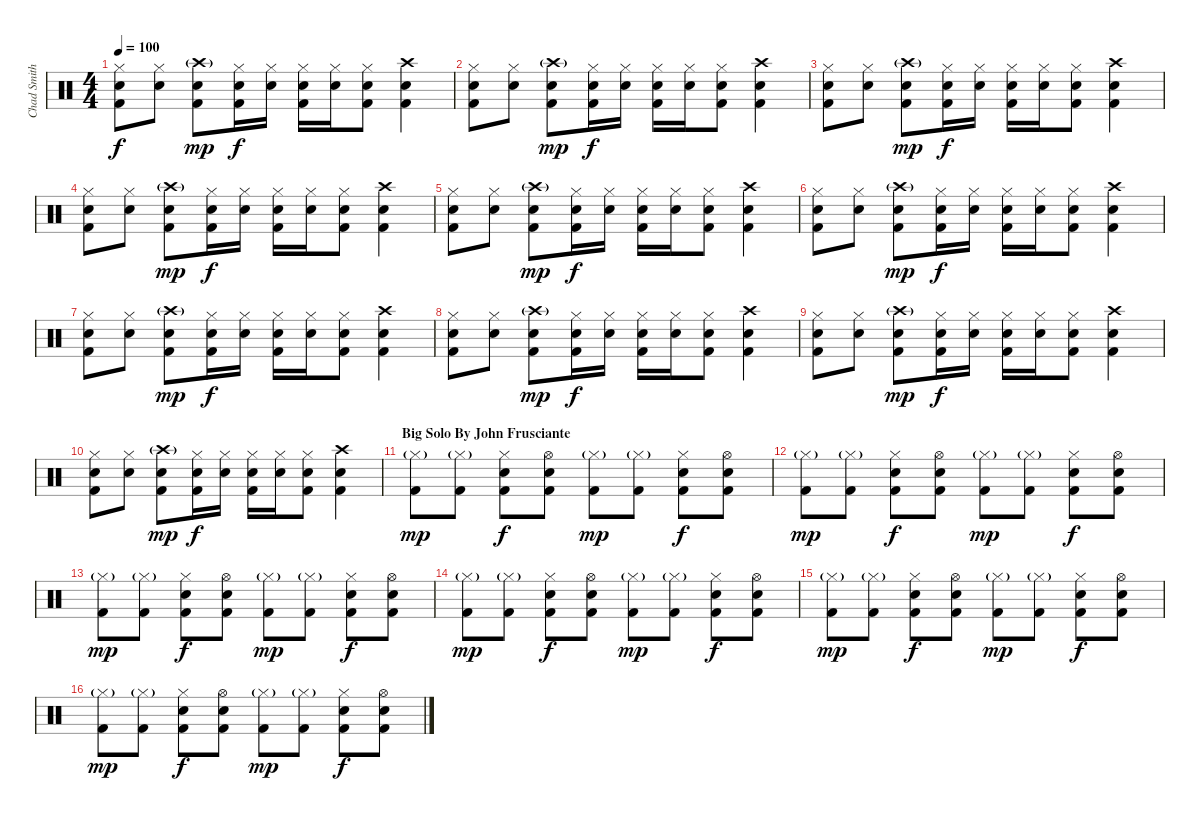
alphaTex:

\track ("Chad Smith - Drums" "Chad Smith") {instrument percussion}
\staff {score}
\articulation defaults
\ts (4 4)
\tempo 100
\clef neutral
\ks c
("Hi-Hat (closed)" "Electric Snare (hit)" "Kick (hit) 2").8{dy f} ("Hi-Hat (closed)" "Electric Snare (hit)").8 ("Crash high (hit)"{g} "Electric Snare (hit)" "Kick (hit) 2").8{dy mp} ("Hi-Hat (closed)" "Electric Snare (hit)" "Kick (hit) 2").16{dy f} ("Hi-Hat (closed)" "Electric Snare (hit)").16 ("Hi-Hat (closed)" "Electric Snare (hit)" "Kick (hit) 2").16 ("Hi-Hat (closed)" "Electric Snare (hit)").16 ("Hi-Hat (closed)" "Electric Snare (hit)" "Kick (hit) 2").8 ("Crash high (hit)" "Electric Snare (hit)" "Kick (hit) 2").4 |
("Hi-Hat (closed)" "Electric Snare (hit)" "Kick (hit) 2").8 ("Hi-Hat (closed)" "Electric Snare (hit)").8 ("Crash high (hit)"{g} "Electric Snare (hit)" "Kick (hit) 2").8{dy mp} ("Hi-Hat (closed)" "Electric Snare (hit)" "Kick (hit) 2").16{dy f} ("Hi-Hat (closed)" "Electric Snare (hit)").16 ("Hi-Hat (closed)" "Electric Snare (hit)" "Kick (hit) 2").16 ("Hi-Hat (closed)" "Electric Snare (hit)").16 ("Hi-Hat (closed)" "Electric Snare (hit)" "Kick (hit) 2").8 ("Crash high (hit)" "Electric Snare (hit)" "Kick (hit) 2").4 |
("Hi-Hat (closed)" "Electric Snare (hit)" "Kick (hit) 2").8 ("Hi-Hat (closed)" "Electric Snare (hit)").8 ("Crash high (hit)"{g} "Electric Snare (hit)" "Kick (hit) 2").8{dy mp} ("Hi-Hat (closed)" "Electric Snare (hit)" "Kick (hit) 2").16{dy f} ("Hi-Hat (closed)" "Electric Snare (hit)").16 ("Hi-Hat (closed)" "Electric Snare (hit)" "Kick (hit) 2").16 ("Hi-Hat (closed)" "Electric Snare (hit)").16 ("Hi-Hat (closed)" "Electric Snare (hit)" "Kick (hit) 2").8 ("Crash high (hit)" "Electric Snare (hit)" "Kick (hit) 2").4 |
("Hi-Hat (closed)" "Electric Snare (hit)" "Kick (hit) 2").8 ("Hi-Hat (closed)" "Electric Snare (hit)").8 ("Crash high (hit)"{g} "Electric Snare (hit)" "Kick (hit) 2").8{dy mp} ("Hi-Hat (closed)" "Electric Snare (hit)" "Kick (hit) 2").16{dy f} ("Hi-Hat (closed)" "Electric Snare (hit)").16 ("Hi-Hat (closed)" "Electric Snare (hit)" "Kick (hit) 2").16 ("Hi-Hat (closed)" "Electric Snare (hit)").16 ("Hi-Hat (closed)" "Electric Snare (hit)" "Kick (hit) 2").8 ("Crash high (hit)" "Electric Snare (hit)" "Kick (hit) 2").4 |
("Hi-Hat (closed)" "Electric Snare (hit)" "Kick (hit) 2").8 ("Hi-Hat (closed)" "Electric Snare (hit)").8 ("Crash high (hit)"{g} "Electric Snare (hit)" "Kick (hit) 2").8{dy mp} ("Hi-Hat (closed)" "Electric Snare (hit)" "Kick (hit) 2").16{dy f} ("Hi-Hat (closed)" "Electric Snare (hit)").16 ("Hi-Hat (closed)" "Electric Snare (hit)" "Kick (hit) 2").16 ("Hi-Hat (closed)" "Electric Snare (hit)").16 ("Hi-Hat (closed)" "Electric Snare (hit)" "Kick (hit) 2").8 ("Crash high (hit)" "Electric Snare (hit)" "Kick (hit) 2").4 |
("Hi-Hat (closed)" "Electric Snare (hit)" "Kick (hit) 2").8 ("Hi-Hat (closed)" "Electric Snare (hit)").8 ("Crash high (hit)"{g} "Electric Snare (hit)" "Kick (hit) 2").8{dy mp} ("Hi-Hat (closed)" "Electric Snare (hit)" "Kick (hit) 2").16{dy f} ("Hi-Hat (closed)" "Electric Snare (hit)").16 ("Hi-Hat (closed)" "Electric Snare (hit)" "Kick (hit) 2").16 ("Hi-Hat (closed)" "Electric Snare (hit)").16 ("Hi-Hat (closed)" "Electric Snare (hit)" "Kick (hit) 2").8 ("Crash high (hit)" "Electric Snare (hit)" "Kick (hit) 2").4 |
("Hi-Hat (closed)" "Electric Snare (hit)" "Kick (hit) 2").8 ("Hi-Hat (closed)" "Electric Snare (hit)").8 ("Crash high (hit)"{g} "Electric Snare (hit)" "Kick (hit) 2").8{dy mp} ("Hi-Hat (closed)" "Electric Snare (hit)" "Kick (hit) 2").16{dy f} ("Hi-Hat (closed)" "Electric Snare (hit)").16 ("Hi-Hat (closed)" "Electric Snare (hit)" "Kick (hit) 2").16 ("Hi-Hat (closed)" "Electric Snare (hit)").16 ("Hi-Hat (closed)" "Electric Snare (hit)" "Kick (hit) 2").8 ("Crash high (hit)" "Electric Snare (hit)" "Kick (hit) 2").4 |
("Hi-Hat (closed)" "Electric Snare (hit)" "Kick (hit) 2").8 ("Hi-Hat (closed)" "Electric Snare (hit)").8 ("Crash high (hit)"{g} "Electric Snare (hit)" "Kick (hit) 2").8{dy mp} ("Hi-Hat (closed)" "Electric Snare (hit)" "Kick (hit) 2").16{dy f} ("Hi-Hat (closed)" "Electric Snare (hit)").16 ("Hi-Hat (closed)" "Electric Snare (hit)" "Kick (hit) 2").16 ("Hi-Hat (closed)" "Electric Snare (hit)").16 ("Hi-Hat (closed)" "Electric Snare (hit)" "Kick (hit) 2").8 ("Crash high (hit)" "Electric Snare (hit)" "Kick (hit) 2").4 |
("Hi-Hat (closed)" "Electric Snare (hit)" "Kick (hit) 2").8 ("Hi-Hat (closed)" "Electric Snare (hit)").8 ("Crash high (hit)"{g} "Electric Snare (hit)" "Kick (hit) 2").8{dy mp} ("Hi-Hat (closed)" "Electric Snare (hit)" "Kick (hit) 2").16{dy f} ("Hi-Hat (closed)" "Electric Snare (hit)").16 ("Hi-Hat (closed)" "Electric Snare (hit)" "Kick (hit) 2").16 ("Hi-Hat (closed)" "Electric Snare (hit)").16 ("Hi-Hat (closed)" "Electric Snare (hit)" "Kick (hit) 2").8 ("Crash high (hit)" "Electric Snare (hit)" "Kick (hit) 2").4 |
("Hi-Hat (closed)" "Electric Snare (hit)" "Kick (hit) 2").8 ("Hi-Hat (closed)" "Electric Snare (hit)").8 ("Crash high (hit)"{g} "Electric Snare (hit)" "Kick (hit) 2").8{dy mp} ("Hi-Hat (closed)" "Electric Snare (hit)" "Kick (hit) 2").16{dy f} ("Hi-Hat (closed)" "Electric Snare (hit)").16 ("Hi-Hat (closed)" "Electric Snare (hit)" "Kick (hit) 2").16 ("Hi-Hat (closed)" "Electric Snare (hit)").16 ("Hi-Hat (closed)" "Electric Snare (hit)" "Kick (hit) 2").8 ("Crash high (hit)" "Electric Snare (hit)" "Kick (hit) 2").4 |
\section ("" "Big Solo By John Frusciante")
("Hi-Hat (closed)"{g} "Kick (hit) 2").8{dy mp} ("Hi-Hat (closed)"{g} "Kick (hit) 2").8 ("Hi-Hat (closed)" "Electric Snare (hit)" "Kick (hit) 2").8{dy f} ("Hi-Hat (open)" "Electric Snare (hit)" "Kick (hit) 2").8 ("Hi-Hat (closed)"{g} "Kick (hit) 2").8{dy mp} ("Hi-Hat (closed)"{g} "Kick (hit) 2").8 ("Hi-Hat (closed)" "Electric Snare (hit)" "Kick (hit) 2").8{dy f} ("Hi-Hat (open)" "Electric Snare (hit)" "Kick (hit) 2").8 |
("Hi-Hat (closed)"{g} "Kick (hit) 2").8{dy mp} ("Hi-Hat (closed)"{g} "Kick (hit) 2").8 ("Hi-Hat (closed)" "Electric Snare (hit)" "Kick (hit) 2").8{dy f} ("Hi-Hat (open)" "Electric Snare (hit)" "Kick (hit) 2").8 ("Hi-Hat (closed)"{g} "Kick (hit) 2").8{dy mp} ("Hi-Hat (closed)"{g} "Kick (hit) 2").8 ("Hi-Hat (closed)" "Electric Snare (hit)" "Kick (hit) 2").8{dy f} ("Hi-Hat (open)" "Electric Snare (hit)" "Kick (hit) 2").8 |
("Hi-Hat (closed)"{g} "Kick (hit) 2").8{dy mp} ("Hi-Hat (closed)"{g} "Kick (hit) 2").8 ("Hi-Hat (closed)" "Electric Snare (hit)" "Kick (hit) 2").8{dy f} ("Hi-Hat (open)" "Electric Snare (hit)" "Kick (hit) 2").8 ("Hi-Hat (closed)"{g} "Kick (hit) 2").8{dy mp} ("Hi-Hat (closed)"{g} "Kick (hit) 2").8 ("Hi-Hat (closed)" "Electric Snare (hit)" "Kick (hit) 2").8{dy f} ("Hi-Hat (open)" "Electric Snare (hit)" "Kick (hit) 2").8 |
("Hi-Hat (closed)"{g} "Kick (hit) 2").8{dy mp} ("Hi-Hat (closed)"{g} "Kick (hit) 2").8 ("Hi-Hat (closed)" "Electric Snare (hit)" "Kick (hit) 2").8{dy f} ("Hi-Hat (open)" "Electric Snare (hit)" "Kick (hit) 2").8 ("Hi-Hat (closed)"{g} "Kick (hit) 2").8{dy mp} ("Hi-Hat (closed)"{g} "Kick (hit) 2").8 ("Hi-Hat (closed)" "Electric Snare (hit)" "Kick (hit) 2").8{dy f} ("Hi-Hat (open)" "Electric Snare (hit)" "Kick (hit) 2").8 |
("Hi-Hat (closed)"{g} "Kick (hit) 2").8{dy mp} ("Hi-Hat (closed)"{g} "Kick (hit) 2").8 ("Hi-Hat (closed)" "Electric Snare (hit)" "Kick (hit) 2").8{dy f} ("Hi-Hat (open)" "Electric Snare (hit)" "Kick (hit) 2").8 ("Hi-Hat (closed)"{g} "Kick (hit) 2").8{dy mp} ("Hi-Hat (closed)"{g} "Kick (hit) 2").8 ("Hi-Hat (closed)" "Electric Snare (hit)" "Kick (hit) 2").8{dy f} ("Hi-Hat (open)" "Electric Snare (hit)" "Kick (hit) 2").8 |
("Hi-Hat (closed)"{g} "Kick (hit) 2").8{dy mp} ("Hi-Hat (closed)"{g} "Kick (hit) 2").8 ("Hi-Hat (closed)" "Electric Snare (hit)" "Kick (hit) 2").8{dy f} ("Hi-Hat (open)" "Electric Snare (hit)" "Kick (hit) 2").8 ("Hi-Hat (closed)"{g} "Kick (hit) 2").8{dy mp} ("Hi-Hat (closed)"{g} "Kick (hit) 2").8 ("Hi-Hat (closed)" "Electric Snare (hit)" "Kick (hit) 2").8{dy f} ("Hi-Hat (open)" "Electric Snare (hit)" "Kick (hit) 2").8
